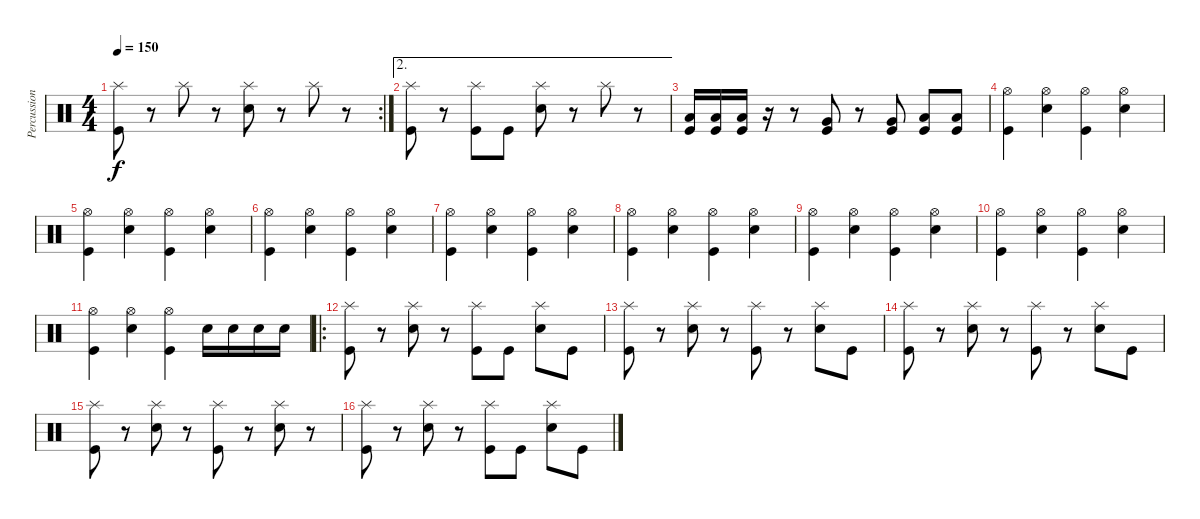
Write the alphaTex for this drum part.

\track ("Percussions" "Percussion") {instrument percussion}
\staff {score}
\articulation defaults
\rc 2
\ts (4 4)
\tempo 150
\clef neutral
\ks c
("Kick (hit)" "Splash (hit)").8{dy f} r.8 "Splash (hit)".8 r.8 ("Electric Snare (hit)" "Splash (hit)").8 r.8 "Splash (hit)".8 r.8 |
\ae 2
("Kick (hit)" "Splash (hit)").8 r.8 ("Kick (hit)" "Splash (hit)").8 "Kick (hit)".8 ("Electric Snare (hit)" "Splash (hit)").8 r.8 "Splash (hit)".8 r.8 |
("Kick (hit)" "Low Tom (hit)").16 ("Kick (hit)" "Low Tom (hit)").16 ("Kick (hit)" "Low Tom (hit)").16 r.16 r.8 ("Kick (hit)" "Very Low Tom (hit)").8 r.8 ("Kick (hit)" "Very Low Tom (hit)").8 ("Kick (hit)" "Low Floor Tom (hit)").8 ("Kick (hit)" "Low Floor Tom (hit)").8 |
("Kick (hit)" "Hi-Hat (open)").4 ("Electric Snare (hit)" "Hi-Hat (open)").4 ("Kick (hit)" "Hi-Hat (open)").4 ("Electric Snare (hit)" "Hi-Hat (open)").4 |
("Kick (hit)" "Hi-Hat (open)").4 ("Electric Snare (hit)" "Hi-Hat (open)").4 ("Kick (hit)" "Hi-Hat (open)").4 ("Electric Snare (hit)" "Hi-Hat (open)").4 |
("Kick (hit)" "Hi-Hat (open)").4 ("Electric Snare (hit)" "Hi-Hat (open)").4 ("Kick (hit)" "Hi-Hat (open)").4 ("Electric Snare (hit)" "Hi-Hat (open)").4 |
("Kick (hit)" "Hi-Hat (open)").4 ("Electric Snare (hit)" "Hi-Hat (open)").4 ("Kick (hit)" "Hi-Hat (open)").4 ("Electric Snare (hit)" "Hi-Hat (open)").4 |
("Kick (hit)" "Hi-Hat (open)").4 ("Electric Snare (hit)" "Hi-Hat (open)").4 ("Kick (hit)" "Hi-Hat (open)").4 ("Electric Snare (hit)" "Hi-Hat (open)").4 |
("Kick (hit)" "Hi-Hat (open)").4 ("Electric Snare (hit)" "Hi-Hat (open)").4 ("Kick (hit)" "Hi-Hat (open)").4 ("Electric Snare (hit)" "Hi-Hat (open)").4 |
("Kick (hit)" "Hi-Hat (open)").4 ("Electric Snare (hit)" "Hi-Hat (open)").4 ("Kick (hit)" "Hi-Hat (open)").4 ("Electric Snare (hit)" "Hi-Hat (open)").4 |
("Kick (hit)" "Hi-Hat (open)").4 ("Electric Snare (hit)" "Hi-Hat (open)").4 ("Kick (hit)" "Hi-Hat (open)").4 "Electric Snare (hit)".16 "Electric Snare (hit)".16 "Electric Snare (hit)".16 "Electric Snare (hit)".16 |
\ro
("Kick (hit)" "Splash (hit)").8 r.8 ("Electric Snare (hit)" "Splash (hit)").8 r.8 ("Kick (hit)" "Splash (hit)").8 "Kick (hit)".8 ("Electric Snare (hit)" "Splash (hit)").8 "Kick (hit)".8 |
("Kick (hit)" "Splash (hit)").8 r.8 ("Electric Snare (hit)" "Splash (hit)").8 r.8 ("Kick (hit)" "Splash (hit)").8 r.8 ("Electric Snare (hit)" "Splash (hit)").8 "Kick (hit)".8 |
("Kick (hit)" "Splash (hit)").8 r.8 ("Electric Snare (hit)" "Splash (hit)").8 r.8 ("Kick (hit)" "Splash (hit)").8 r.8 ("Electric Snare (hit)" "Splash (hit)").8 "Kick (hit)".8 |
("Kick (hit)" "Splash (hit)").8 r.8 ("Electric Snare (hit)" "Splash (hit)").8 r.8 ("Kick (hit)" "Splash (hit)").8 r.8 ("Electric Snare (hit)" "Splash (hit)").8 r.8 |
("Kick (hit)" "Splash (hit)").8 r.8 ("Electric Snare (hit)" "Splash (hit)").8 r.8 ("Kick (hit)" "Splash (hit)").8 "Kick (hit)".8 ("Electric Snare (hit)" "Splash (hit)").8 "Kick (hit)".8
